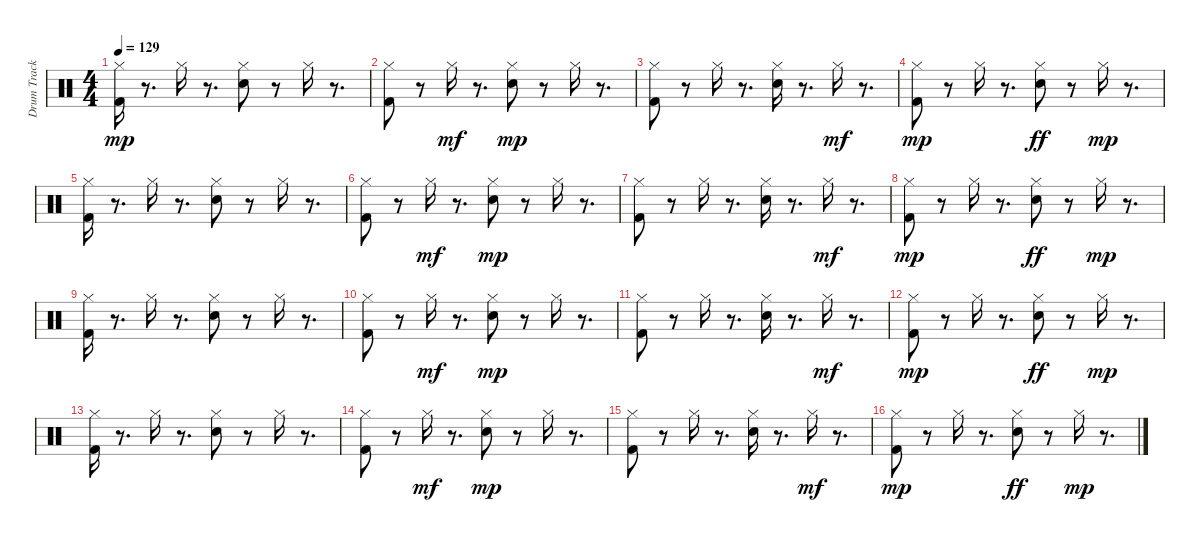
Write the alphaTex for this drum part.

\track ("Drum Track 1" "Drum Track") {instrument percussion}
\staff {score}
\articulation defaults
\ts (4 4)
\tempo 129
\clef neutral
\ks c
("Kick (hit) 2" "Hi-Hat (closed)").16{dy mp} r.8{d} "Hi-Hat (closed)".16 r.8{d} ("Snare (hit) 2" "Hi-Hat (closed)").8 r.8 "Hi-Hat (closed)".16 r.8{d} |
("Kick (hit) 2" "Hi-Hat (closed)").8 r.8 "Hi-Hat (closed)".16{dy mf} r.8{d} ("Hi-Hat (closed)" "Snare (hit) 2").8{dy mp} r.8 "Hi-Hat (closed)".16 r.8{d} |
("Hi-Hat (closed)" "Kick (hit) 2").8 r.8 "Hi-Hat (closed)".16 r.8{d} ("Hi-Hat (closed)" "Snare (hit) 2").16 r.8{d} "Hi-Hat (closed)".16{dy mf} r.8{d} |
("Kick (hit) 2" "Hi-Hat (closed)").8{dy mp} r.8 "Hi-Hat (closed)".16 r.8{d} ("Hi-Hat (closed)" "Snare (hit) 2").8{dy ff} r.8 "Hi-Hat (closed)".16{dy mp} r.8{d} |
("Kick (hit) 2" "Hi-Hat (closed)").16 r.8{d} "Hi-Hat (closed)".16 r.8{d} ("Snare (hit) 2" "Hi-Hat (closed)").8 r.8 "Hi-Hat (closed)".16 r.8{d} |
("Kick (hit) 2" "Hi-Hat (closed)").8 r.8 "Hi-Hat (closed)".16{dy mf} r.8{d} ("Hi-Hat (closed)" "Snare (hit) 2").8{dy mp} r.8 "Hi-Hat (closed)".16 r.8{d} |
("Hi-Hat (closed)" "Kick (hit) 2").8 r.8 "Hi-Hat (closed)".16 r.8{d} ("Hi-Hat (closed)" "Snare (hit) 2").16 r.8{d} "Hi-Hat (closed)".16{dy mf} r.8{d} |
("Kick (hit) 2" "Hi-Hat (closed)").8{dy mp} r.8 "Hi-Hat (closed)".16 r.8{d} ("Hi-Hat (closed)" "Snare (hit) 2").8{dy ff} r.8 "Hi-Hat (closed)".16{dy mp} r.8{d} |
("Kick (hit) 2" "Hi-Hat (closed)").16 r.8{d} "Hi-Hat (closed)".16 r.8{d} ("Snare (hit) 2" "Hi-Hat (closed)").8 r.8 "Hi-Hat (closed)".16 r.8{d} |
("Kick (hit) 2" "Hi-Hat (closed)").8 r.8 "Hi-Hat (closed)".16{dy mf} r.8{d} ("Hi-Hat (closed)" "Snare (hit) 2").8{dy mp} r.8 "Hi-Hat (closed)".16 r.8{d} |
("Hi-Hat (closed)" "Kick (hit) 2").8 r.8 "Hi-Hat (closed)".16 r.8{d} ("Hi-Hat (closed)" "Snare (hit) 2").16 r.8{d} "Hi-Hat (closed)".16{dy mf} r.8{d} |
("Kick (hit) 2" "Hi-Hat (closed)").8{dy mp} r.8 "Hi-Hat (closed)".16 r.8{d} ("Hi-Hat (closed)" "Snare (hit) 2").8{dy ff} r.8 "Hi-Hat (closed)".16{dy mp} r.8{d} |
("Kick (hit) 2" "Hi-Hat (closed)").16 r.8{d} "Hi-Hat (closed)".16 r.8{d} ("Snare (hit) 2" "Hi-Hat (closed)").8 r.8 "Hi-Hat (closed)".16 r.8{d} |
("Kick (hit) 2" "Hi-Hat (closed)").8 r.8 "Hi-Hat (closed)".16{dy mf} r.8{d} ("Hi-Hat (closed)" "Snare (hit) 2").8{dy mp} r.8 "Hi-Hat (closed)".16 r.8{d} |
("Hi-Hat (closed)" "Kick (hit) 2").8 r.8 "Hi-Hat (closed)".16 r.8{d} ("Hi-Hat (closed)" "Snare (hit) 2").16 r.8{d} "Hi-Hat (closed)".16{dy mf} r.8{d} |
("Kick (hit) 2" "Hi-Hat (closed)").8{dy mp} r.8 "Hi-Hat (closed)".16 r.8{d} ("Hi-Hat (closed)" "Snare (hit) 2").8{dy ff} r.8 "Hi-Hat (closed)".16{dy mp} r.8{d}
